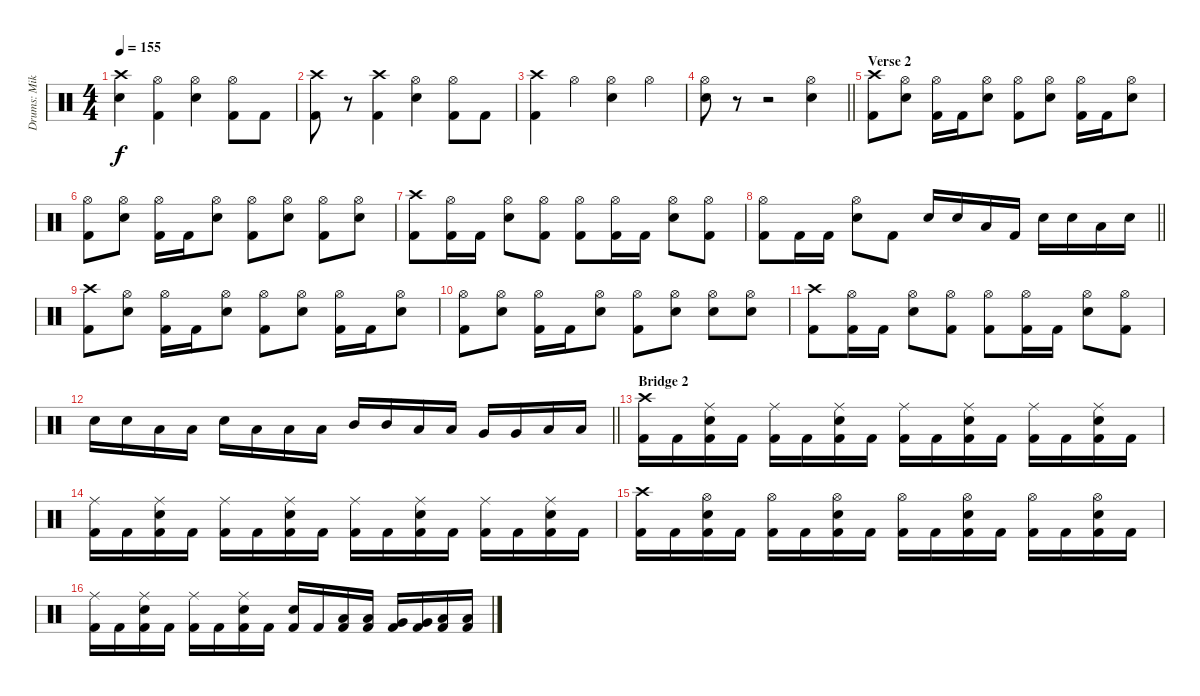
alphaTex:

\track ("Drums: Mikko Korsbäck" "Drums: Mik") {instrument percussion}
\staff {score}
\articulation defaults
\ts (4 4)
\tempo 155
\clef neutral
\ks aminor
("Crash high (hit)" "Electric Snare (hit)").4{dy f} ("Hi-Hat (open)" "Kick (hit) 2").4 ("Hi-Hat (open)" "Electric Snare (hit)").4 ("Hi-Hat (open)" "Kick (hit) 2").8 "Kick (hit) 2".8 |
("Crash high (hit)" "Kick (hit) 2").8 r.8 ("Crash high (hit)" "Kick (hit) 2").4 ("Hi-Hat (open)" "Electric Snare (hit)").4 ("Hi-Hat (open)" "Kick (hit) 2").8 "Kick (hit) 2".8 |
("Crash high (hit)" "Kick (hit) 2").4 "Hi-Hat (open)".4 ("Hi-Hat (open)" "Electric Snare (hit)").4 "Hi-Hat (open)".4 |
\barLineRight lightlight
("Hi-Hat (open)" "Electric Snare (hit)").8 r.8 r.2 ("Hi-Hat (open)" "Electric Snare (hit)").4 |
\section ("" "Verse 2")
("Crash high (hit)" "Kick (hit) 2").8 ("Hi-Hat (open)" "Electric Snare (hit)").8 ("Hi-Hat (open)" "Kick (hit) 2").16 "Kick (hit) 2".16 ("Hi-Hat (open)" "Electric Snare (hit)").8 ("Hi-Hat (open)" "Kick (hit) 2").8 ("Hi-Hat (open)" "Electric Snare (hit)").8 ("Hi-Hat (open)" "Kick (hit) 2").16 "Kick (hit) 2".16 ("Hi-Hat (open)" "Electric Snare (hit)").8 |
("Hi-Hat (open)" "Kick (hit) 2").8 ("Hi-Hat (open)" "Electric Snare (hit)").8 ("Hi-Hat (open)" "Kick (hit) 2").16 "Kick (hit) 2".16 ("Hi-Hat (open)" "Electric Snare (hit)").8 ("Hi-Hat (open)" "Kick (hit) 2").8 ("Hi-Hat (open)" "Electric Snare (hit)").8 ("Hi-Hat (open)" "Kick (hit) 2").8 ("Hi-Hat (open)" "Electric Snare (hit)").8 |
("Crash high (hit)" "Kick (hit) 2").8 ("Hi-Hat (open)" "Kick (hit) 2").16 "Kick (hit) 2".16 ("Hi-Hat (open)" "Electric Snare (hit)").8 ("Hi-Hat (open)" "Kick (hit) 2").8 ("Hi-Hat (open)" "Kick (hit) 2").8 ("Hi-Hat (open)" "Kick (hit) 2").16 "Kick (hit) 2".16 ("Hi-Hat (open)" "Electric Snare (hit)").8 ("Hi-Hat (open)" "Kick (hit) 2").8 |
\barLineRight lightlight
("Hi-Hat (open)" "Kick (hit) 2").8 "Kick (hit) 2".16 "Kick (hit) 2".16 ("Hi-Hat (open)" "Electric Snare (hit)").8 "Kick (hit) 2".8 "Electric Snare (hit)".16 "Electric Snare (hit)".16 "Low Tom (hit)".16 "Kick (hit) 2".16 "Electric Snare (hit)".16 "Electric Snare (hit)".16 "Low Tom (hit)".16 "Electric Snare (hit)".16 |
("Crash high (hit)" "Kick (hit) 2").8 ("Hi-Hat (open)" "Electric Snare (hit)").8 ("Hi-Hat (open)" "Kick (hit) 2").16 "Kick (hit) 2".16 ("Hi-Hat (open)" "Electric Snare (hit)").8 ("Hi-Hat (open)" "Kick (hit) 2").8 ("Hi-Hat (open)" "Electric Snare (hit)").8 ("Hi-Hat (open)" "Kick (hit) 2").16 "Kick (hit) 2".16 ("Hi-Hat (open)" "Electric Snare (hit)").8 |
("Hi-Hat (open)" "Kick (hit) 2").8 ("Hi-Hat (open)" "Electric Snare (hit)").8 ("Hi-Hat (open)" "Kick (hit) 2").16 "Kick (hit) 2".16 ("Hi-Hat (open)" "Electric Snare (hit)").8 ("Hi-Hat (open)" "Kick (hit) 2").8 ("Hi-Hat (open)" "Electric Snare (hit)").8 ("Hi-Hat (open)" "Electric Snare (hit)").8 ("Hi-Hat (open)" "Electric Snare (hit)").8 |
("Crash high (hit)" "Kick (hit) 2").8 ("Hi-Hat (open)" "Kick (hit) 2").16 "Kick (hit) 2".16 ("Hi-Hat (open)" "Electric Snare (hit)").8 ("Hi-Hat (open)" "Kick (hit) 2").8 ("Hi-Hat (open)" "Kick (hit) 2").8 ("Hi-Hat (open)" "Kick (hit) 2").16 "Kick (hit) 2".16 ("Hi-Hat (open)" "Electric Snare (hit)").8 ("Hi-Hat (open)" "Kick (hit) 2").8 |
\barLineRight lightlight "Electric Snare (hit)".16 "Electric Snare (hit)".16 "Low Tom (hit)".16 "Low Tom (hit)".16 "Electric Snare (hit)".16 "Low Tom (hit)".16 "Low Tom (hit)".16 "Low Tom (hit)".16 "Mid Tom (hit)".16 "Mid Tom (hit)".16 "Low Tom (hit)".16 "Low Tom (hit)".16 "Very Low Tom (hit)".16 "Very Low Tom (hit)".16 "Low Floor Tom (hit)".16 "Low Floor Tom (hit)".16
|
\section ("" "Bridge 2")
("Crash high (hit)" "Kick (hit) 2").16 "Kick (hit) 2".16 ("Ride (middle)" "Electric Snare (hit)" "Kick (hit) 2").16 "Kick (hit) 2".16 ("Ride (middle)" "Kick (hit) 2").16 "Kick (hit) 2".16 ("Ride (middle)" "Electric Snare (hit)" "Kick (hit) 2").16 "Kick (hit) 2".16 ("Ride (middle)" "Kick (hit) 2").16 "Kick (hit) 2".16 ("Ride (middle)" "Electric Snare (hit)" "Kick (hit) 2").16 "Kick (hit) 2".16 ("Ride (middle)" "Kick (hit) 2").16 "Kick (hit) 2".16 ("Ride (middle)" "Electric Snare (hit)" "Kick (hit) 2").16 "Kick (hit) 2".16 |
("Ride (middle)" "Kick (hit) 2").16 "Kick (hit) 2".16 ("Ride (middle)" "Electric Snare (hit)" "Kick (hit) 2").16 "Kick (hit) 2".16 ("Ride (middle)" "Kick (hit) 2").16 "Kick (hit) 2".16 ("Ride (middle)" "Electric Snare (hit)" "Kick (hit) 2").16 "Kick (hit) 2".16 ("Ride (middle)" "Kick (hit) 2").16 "Kick (hit) 2".16 ("Ride (middle)" "Electric Snare (hit)" "Kick (hit) 2").16 "Kick (hit) 2".16 ("Ride (middle)" "Kick (hit) 2").16 "Kick (hit) 2".16 ("Ride (middle)" "Electric Snare (hit)" "Kick (hit) 2").16 "Kick (hit) 2".16 |
("Crash high (hit)" "Kick (hit) 2").16 "Kick (hit) 2".16 ("Hi-Hat (open)" "Electric Snare (hit)" "Kick (hit) 2").16 "Kick (hit) 2".16 ("Hi-Hat (open)" "Kick (hit) 2").16 "Kick (hit) 2".16 ("Hi-Hat (open)" "Electric Snare (hit)" "Kick (hit) 2").16 "Kick (hit) 2".16 ("Hi-Hat (open)" "Kick (hit) 2").16 "Kick (hit) 2".16 ("Hi-Hat (open)" "Electric Snare (hit)" "Kick (hit) 2").16 "Kick (hit) 2".16 ("Hi-Hat (open)" "Kick (hit) 2").16 "Kick (hit) 2".16 ("Hi-Hat (open)" "Electric Snare (hit)" "Kick (hit) 2").16 "Kick (hit) 2".16 |
("Ride (middle)" "Kick (hit) 2").16 "Kick (hit) 2".16 ("Ride (middle)" "Electric Snare (hit)" "Kick (hit) 2").16 "Kick (hit) 2".16 ("Ride (middle)" "Kick (hit) 2").16 "Kick (hit) 2".16 ("Ride (middle)" "Electric Snare (hit)" "Kick (hit) 2").16 "Kick (hit) 2".16 ("Electric Snare (hit)" "Kick (hit) 2").16 "Kick (hit) 2".16 ("Low Tom (hit)" "Kick (hit) 2").16 ("Low Tom (hit)" "Kick (hit) 2").16 ("Very Low Tom (hit)" "Kick (hit) 2").16 ("Very Low Tom (hit)" "Kick (hit) 2").16 ("Low Tom (hit)" "Kick (hit) 2").16 ("Low Tom (hit)" "Kick (hit) 2").16
